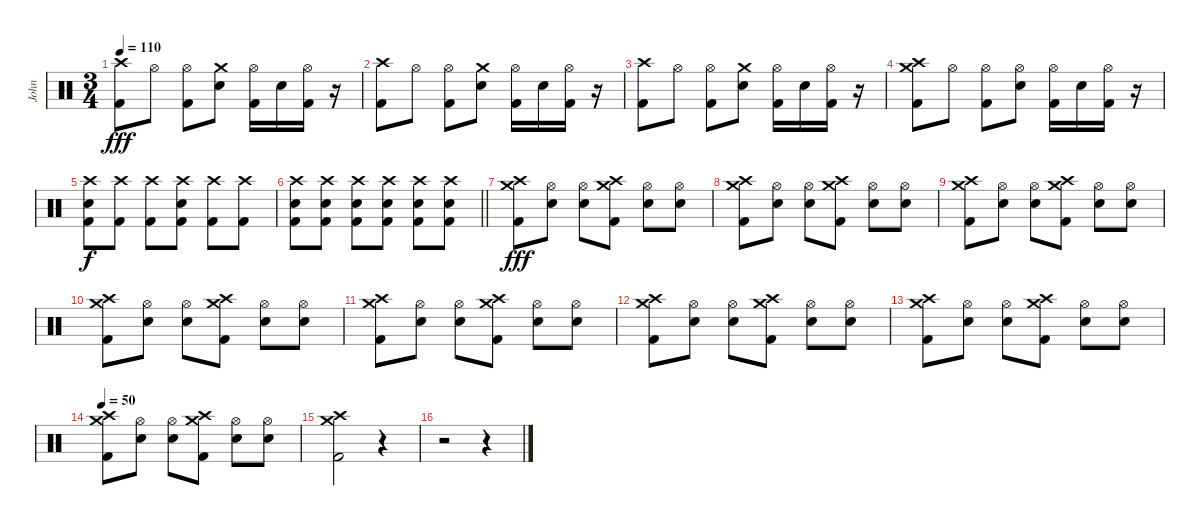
\track ("John" "John") {instrument percussion}
\staff {score}
\articulation defaults
\ts (3 4)
\tempo 110
\clef neutral
\ks c
("Crash high (hit)" "Kick (hit) 2").8{dy fff} "Hi-Hat (open)".8 ("Hi-Hat (open)" "Kick (hit) 2").8 ("Crash medium (hit)" "Electric Snare (hit)").8 ("Hi-Hat (open)" "Kick (hit) 2").16 "Electric Snare (hit)".16 ("Hi-Hat (open)" "Kick (hit) 2").16 r.16 |
("Crash high (hit)" "Kick (hit) 2").8 "Hi-Hat (open)".8 ("Hi-Hat (open)" "Kick (hit) 2").8 ("Crash medium (hit)" "Electric Snare (hit)").8 ("Hi-Hat (open)" "Kick (hit) 2").16 "Electric Snare (hit)".16 ("Hi-Hat (open)" "Kick (hit) 2").16 r.16 |
("Crash high (hit)" "Kick (hit) 2").8 "Hi-Hat (open)".8 ("Hi-Hat (open)" "Kick (hit) 2").8 ("Crash medium (hit)" "Electric Snare (hit)").8 ("Hi-Hat (open)" "Kick (hit) 2").16 "Electric Snare (hit)".16 ("Hi-Hat (open)" "Kick (hit) 2").16 r.16 |
("Crash medium (hit)" "Crash high (hit)" "Kick (hit) 2").8 "Hi-Hat (open)".8 ("Hi-Hat (open)" "Kick (hit) 2").8 ("Hi-Hat (open)" "Electric Snare (hit)").8 ("Hi-Hat (open)" "Kick (hit) 2").16 "Electric Snare (hit)".16 ("Hi-Hat (open)" "Kick (hit) 2").16 r.16 |
("Crash high (hit)" "Electric Snare (hit)" "Kick (hit) 2").8{dy f} ("Crash high (hit)" "Kick (hit) 2").8 ("Crash high (hit)" "Kick (hit) 2").8 ("Crash high (hit)" "Electric Snare (hit)" "Kick (hit) 2").8 ("Crash high (hit)" "Kick (hit) 2").8 ("Crash high (hit)" "Kick (hit) 2").8 |
\barLineRight lightlight
("Crash high (hit)" "Electric Snare (hit)" "Kick (hit) 2").8 ("Crash high (hit)" "Electric Snare (hit)" "Kick (hit) 2").8 ("Crash high (hit)" "Electric Snare (hit)" "Kick (hit) 2").8 ("Crash high (hit)" "Electric Snare (hit)" "Kick (hit) 2").8 ("Crash high (hit)" "Electric Snare (hit)" "Kick (hit) 2").8 ("Crash high (hit)" "Electric Snare (hit)" "Kick (hit) 2").8 |
("Crash medium (hit)" "Crash high (hit)" "Kick (hit) 2").8{dy fff} ("Hi-Hat (open)" "Electric Snare (hit)").8 ("Hi-Hat (open)" "Electric Snare (hit)").8 ("Crash medium (hit)" "Crash high (hit)" "Kick (hit) 2").8 ("Hi-Hat (open)" "Electric Snare (hit)").8 ("Hi-Hat (open)" "Electric Snare (hit)").8 |
("Crash medium (hit)" "Crash high (hit)" "Kick (hit) 2").8 ("Hi-Hat (open)" "Electric Snare (hit)").8 ("Hi-Hat (open)" "Electric Snare (hit)").8 ("Crash medium (hit)" "Crash high (hit)" "Kick (hit) 2").8 ("Hi-Hat (open)" "Electric Snare (hit)").8 ("Hi-Hat (open)" "Electric Snare (hit)").8 |
("Crash medium (hit)" "Crash high (hit)" "Kick (hit) 2").8 ("Hi-Hat (open)" "Electric Snare (hit)").8 ("Hi-Hat (open)" "Electric Snare (hit)").8 ("Crash medium (hit)" "Crash high (hit)" "Kick (hit) 2").8 ("Hi-Hat (open)" "Electric Snare (hit)").8 ("Hi-Hat (open)" "Electric Snare (hit)").8 |
("Crash medium (hit)" "Crash high (hit)" "Kick (hit) 2").8 ("Hi-Hat (open)" "Electric Snare (hit)").8 ("Hi-Hat (open)" "Electric Snare (hit)").8 ("Crash medium (hit)" "Crash high (hit)" "Kick (hit) 2").8 ("Hi-Hat (open)" "Electric Snare (hit)").8 ("Hi-Hat (open)" "Electric Snare (hit)").8 |
("Crash medium (hit)" "Crash high (hit)" "Kick (hit) 2").8 ("Hi-Hat (open)" "Electric Snare (hit)").8 ("Hi-Hat (open)" "Electric Snare (hit)").8 ("Crash medium (hit)" "Crash high (hit)" "Kick (hit) 2").8 ("Hi-Hat (open)" "Electric Snare (hit)").8 ("Hi-Hat (open)" "Electric Snare (hit)").8 |
("Crash medium (hit)" "Crash high (hit)" "Kick (hit) 2").8 ("Hi-Hat (open)" "Electric Snare (hit)").8 ("Hi-Hat (open)" "Electric Snare (hit)").8 ("Crash medium (hit)" "Crash high (hit)" "Kick (hit) 2").8 ("Hi-Hat (open)" "Electric Snare (hit)").8 ("Hi-Hat (open)" "Electric Snare (hit)").8 |
("Crash medium (hit)" "Crash high (hit)" "Kick (hit) 2").8 ("Hi-Hat (open)" "Electric Snare (hit)").8 ("Hi-Hat (open)" "Electric Snare (hit)").8 ("Crash medium (hit)" "Crash high (hit)" "Kick (hit) 2").8 ("Hi-Hat (open)" "Electric Snare (hit)").8 ("Hi-Hat (open)" "Electric Snare (hit)").8 |
\tempo 100
\tempo 50
("Crash medium (hit)" "Crash high (hit)" "Kick (hit) 2").8 ("Hi-Hat (open)" "Electric Snare (hit)").8 ("Hi-Hat (open)" "Electric Snare (hit)").8 ("Crash medium (hit)" "Crash high (hit)" "Kick (hit) 2").8 ("Hi-Hat (open)" "Electric Snare (hit)").8 ("Hi-Hat (open)" "Electric Snare (hit)").8 |
("Crash medium (hit)" "Crash high (hit)" "Kick (hit) 2").2 r.4 |
r.2 r.4
